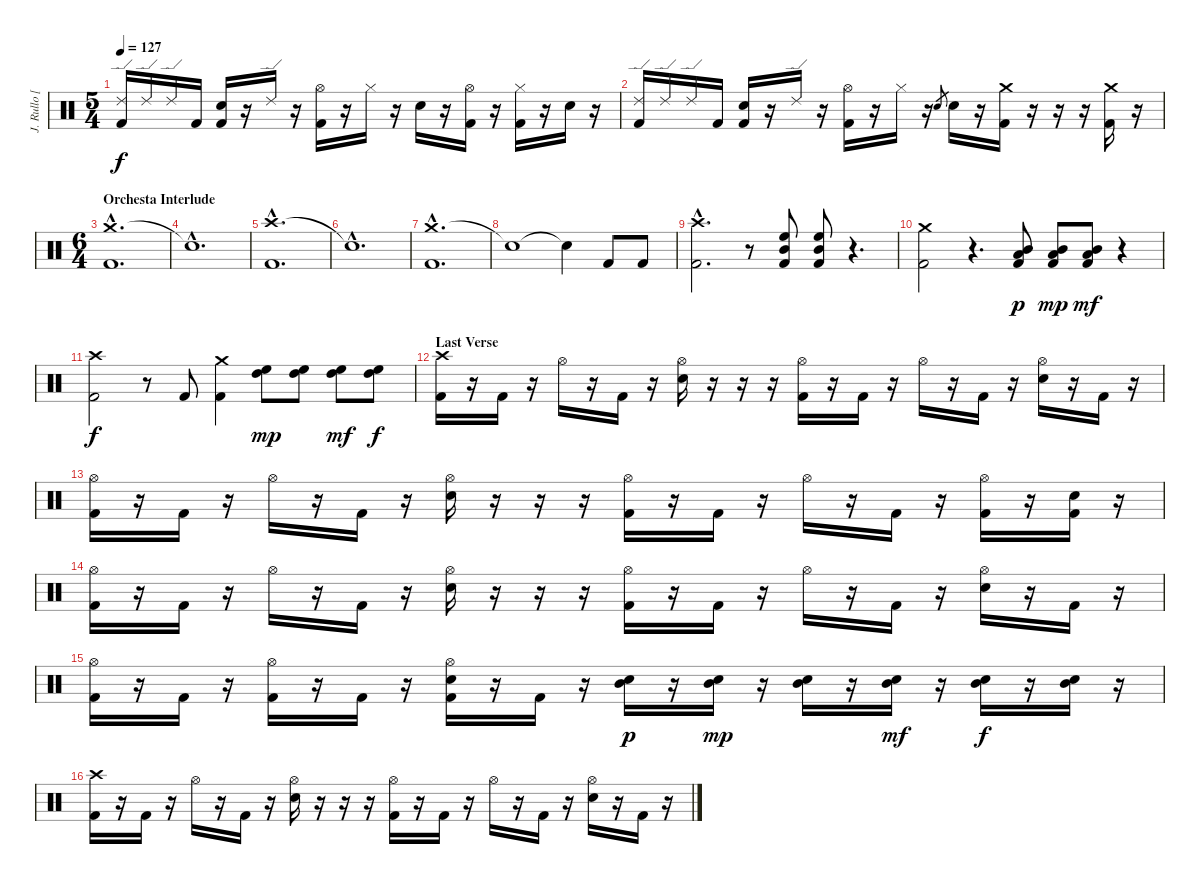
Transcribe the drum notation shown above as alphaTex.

\track ("J. Rullo [Drums]" "J. Rullo [") {instrument percussion}
\staff {score}
\articulation defaults
\ts (5 4)
\tempo 127
\clef neutral
\ks c
("Ride (edge) 2" "Kick (hit) 2").16{dy f} "Ride (edge) 2".16 "Ride (edge) 2".16 "Kick (hit) 2".16 ("Electric Snare (hit)" "Kick (hit) 2").16 r.16 "Ride (edge) 2".16 r.16 ("Hi-Hat (open)" "Kick (hit) 2").16 r.16 "Hi-Hat (closed)".16 r.16 "Electric Snare (hit)".16 r.16 ("Hi-Hat (open)" "Kick (hit) 2").16 r.16 ("Hi-Hat (closed)" "Kick (hit) 2").16 r.16 "Electric Snare (hit)".16 r.16 |
("Ride (edge) 2" "Kick (hit) 2").16 "Ride (edge) 2".16 "Ride (edge) 2".16 "Kick (hit) 2".16 ("Electric Snare (hit)" "Kick (hit) 2").16 r.16 "Ride (edge) 2".16 r.16 ("Hi-Hat (open)" "Kick (hit) 2").16 r.16 "Hi-Hat (closed)".16 r.16 "Electric Snare (hit)".8{gr} "Electric Snare (hit)".16 r.16 ("Crash medium (hit)" "Kick (hit) 2").16 r.16 r.16 r.16 ("Crash medium (hit)" "Kick (hit) 2").16 r.16 |
\ts (6 4)
\section ("" "Orchesta Interlude")
("Crash medium (hit)"{hac} "Kick (hit) 2"{hac}).1{d} |
"Snare (hit)"{hac t}.1{d} |
("Crash high (hit)"{hac} "Kick (hit) 2"{hac}).1{d} |
"Snare (hit)"{hac t}.1{d} |
("Crash medium (hit)"{hac} "Kick (hit) 2"{hac}).1{d} |
"Snare (hit)"{t}.1 "Snare (hit)"{t}.4 "Kick (hit) 2".8 "Kick (hit) 2".8 |
("Crash high (hit)"{hac} "Kick (hit) 2"{hac}).2{d} r.8 ("High Floor Tom (hit)" "Mid Tom (hit)" "Kick (hit) 2").8 ("High Floor Tom (hit)" "Mid Tom (hit)" "Kick (hit) 2").8 r.4{d} |
("Crash medium (hit)" "Kick (hit) 2").2 r.4{d} ("Mid Tom (hit)" "Low Tom (hit)" "Kick (hit) 2").8{dy p} ("Mid Tom (hit)" "Low Tom (hit)" "Kick (hit) 2").8{dy mp} ("Mid Tom (hit)" "Low Tom (hit)" "Kick (hit) 2").8{dy mf} r.4 |
("Crash high (hit)" "Kick (hit) 2").2{dy f} r.8 "Kick (hit) 2".8 ("Crash medium (hit)" "Kick (hit) 2").4 ("High Floor Tom (hit)" "High Tom (hit)").8{dy mp} ("High Floor Tom (hit)" "High Tom (hit)").8 ("High Floor Tom (hit)" "High Tom (hit)").8{dy mf} ("High Floor Tom (hit)" "High Tom (hit)").8{dy f} |
\section ("" "Last Verse")
("Crash high (hit)" "Kick (hit) 2").16 r.16 "Kick (hit) 2".16 r.16 "Hi-Hat (open)".16 r.16 "Kick (hit) 2".16 r.16 ("Hi-Hat (open)" "Electric Snare (hit)").16 r.16 r.16 r.16 ("Hi-Hat (open)" "Kick (hit) 2").16 r.16 "Kick (hit) 2".16 r.16 "Hi-Hat (open)".16 r.16 "Kick (hit) 2".16 r.16 ("Hi-Hat (open)" "Electric Snare (hit)").16 r.16 "Kick (hit) 2".16 r.16 |
("Hi-Hat (open)" "Kick (hit) 2").16 r.16 "Kick (hit) 2".16 r.16 "Hi-Hat (open)".16 r.16 "Kick (hit) 2".16 r.16 ("Hi-Hat (open)" "Electric Snare (hit)").16 r.16 r.16 r.16 ("Hi-Hat (open)" "Kick (hit) 2").16 r.16 "Kick (hit) 2".16 r.16 "Hi-Hat (open)".16 r.16 "Kick (hit) 2".16 r.16 ("Hi-Hat (open)" "Kick (hit) 2").16 r.16 ("Electric Snare (hit)" "Kick (hit) 2").16 r.16 |
("Hi-Hat (open)" "Kick (hit) 2").16 r.16 "Kick (hit) 2".16 r.16 "Hi-Hat (open)".16 r.16 "Kick (hit) 2".16 r.16 ("Hi-Hat (open)" "Electric Snare (hit)").16 r.16 r.16 r.16 ("Hi-Hat (open)" "Kick (hit) 2").16 r.16 "Kick (hit) 2".16 r.16 "Hi-Hat (open)".16 r.16 "Kick (hit) 2".16 r.16 ("Hi-Hat (open)" "Electric Snare (hit)").16 r.16 "Kick (hit) 2".16 r.16 |
("Hi-Hat (open)" "Kick (hit) 2").16 r.16 "Kick (hit) 2".16 r.16 ("Hi-Hat (open)" "Kick (hit) 2").16 r.16 "Kick (hit) 2".16 r.16 ("Hi-Hat (open)" "Electric Snare (hit)" "Kick (hit) 2").16 r.16 "Kick (hit) 2".16 r.16 ("Mid Tom (hit)" "Electric Snare (hit)").16{dy p} r.16 ("Mid Tom (hit)" "Electric Snare (hit)").16{dy mp} r.16 ("Mid Tom (hit)" "Electric Snare (hit)").16 r.16 ("Mid Tom (hit)" "Electric Snare (hit)").16{dy mf} r.16 ("Mid Tom (hit)" "Electric Snare (hit)").16{dy f} r.16 ("Mid Tom (hit)" "Electric Snare (hit)").16 r.16 |
("Crash high (hit)" "Kick (hit) 2").16 r.16 "Kick (hit) 2".16 r.16 "Hi-Hat (open)".16 r.16 "Kick (hit) 2".16 r.16 ("Hi-Hat (open)" "Electric Snare (hit)").16 r.16 r.16 r.16 ("Hi-Hat (open)" "Kick (hit) 2").16 r.16 "Kick (hit) 2".16 r.16 "Hi-Hat (open)".16 r.16 "Kick (hit) 2".16 r.16 ("Hi-Hat (open)" "Electric Snare (hit)").16 r.16 "Kick (hit) 2".16 r.16
